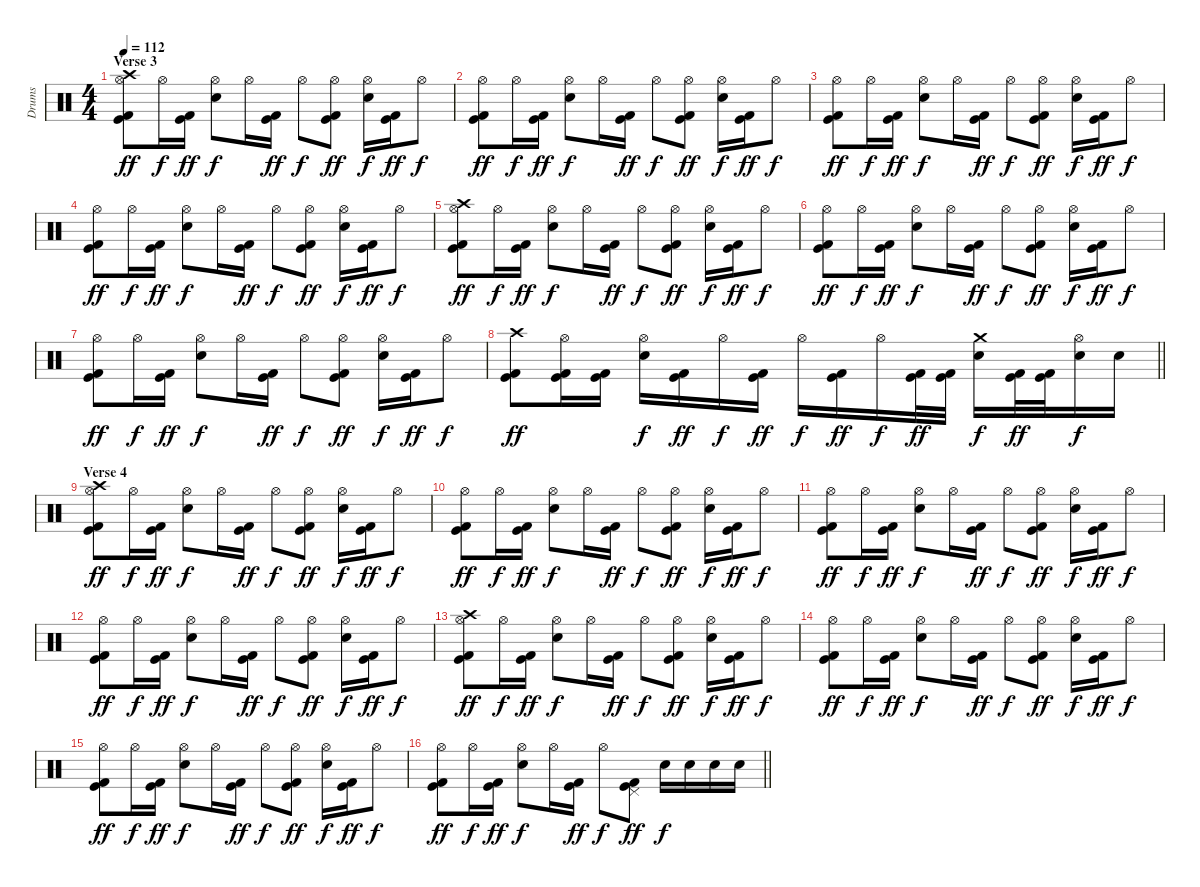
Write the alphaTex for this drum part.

\track ("Drums" "Drums") {instrument percussion}
\staff {score}
\articulation defaults
\ts (4 4)
\section ("" "Verse 3")
\tempo 112
\clef neutral
\ks c
("Crash high (hit)" "Hi-Hat (open)" "Kick (hit)" "Kick (hit) 2").8{dy ff} "Hi-Hat (open)".16{dy f} ("Kick (hit)" "Kick (hit) 2").16{dy ff} ("Hi-Hat (open)" "Snare (hit) 2").8{dy f} "Hi-Hat (open)".16 ("Kick (hit)" "Kick (hit) 2").16{dy ff} "Hi-Hat (open)".8{dy f} ("Hi-Hat (open)" "Kick (hit)" "Kick (hit) 2").8{dy ff} ("Hi-Hat (open)" "Snare (hit) 2").16{dy f} ("Kick (hit)" "Kick (hit) 2").16{dy ff} "Hi-Hat (open)".8{dy f} |
("Hi-Hat (open)" "Kick (hit)" "Kick (hit) 2").8{dy ff} "Hi-Hat (open)".16{dy f} ("Kick (hit)" "Kick (hit) 2").16{dy ff} ("Hi-Hat (open)" "Snare (hit) 2").8{dy f} "Hi-Hat (open)".16 ("Kick (hit)" "Kick (hit) 2").16{dy ff} "Hi-Hat (open)".8{dy f} ("Hi-Hat (open)" "Kick (hit)" "Kick (hit) 2").8{dy ff} ("Hi-Hat (open)" "Snare (hit) 2").16{dy f} ("Kick (hit)" "Kick (hit) 2").16{dy ff} "Hi-Hat (open)".8{dy f} |
("Hi-Hat (open)" "Kick (hit)" "Kick (hit) 2").8{dy ff} "Hi-Hat (open)".16{dy f} ("Kick (hit)" "Kick (hit) 2").16{dy ff} ("Hi-Hat (open)" "Snare (hit) 2").8{dy f} "Hi-Hat (open)".16 ("Kick (hit)" "Kick (hit) 2").16{dy ff} "Hi-Hat (open)".8{dy f} ("Hi-Hat (open)" "Kick (hit)" "Kick (hit) 2").8{dy ff} ("Hi-Hat (open)" "Snare (hit) 2").16{dy f} ("Kick (hit)" "Kick (hit) 2").16{dy ff} "Hi-Hat (open)".8{dy f} |
("Hi-Hat (open)" "Kick (hit)" "Kick (hit) 2").8{dy ff} "Hi-Hat (open)".16{dy f} ("Kick (hit)" "Kick (hit) 2").16{dy ff} ("Hi-Hat (open)" "Snare (hit) 2").8{dy f} "Hi-Hat (open)".16 ("Kick (hit)" "Kick (hit) 2").16{dy ff} "Hi-Hat (open)".8{dy f} ("Hi-Hat (open)" "Kick (hit)" "Kick (hit) 2").8{dy ff} ("Hi-Hat (open)" "Snare (hit) 2").16{dy f} ("Kick (hit)" "Kick (hit) 2").16{dy ff} "Hi-Hat (open)".8{dy f} |
("Crash high (hit)" "Hi-Hat (open)" "Kick (hit)" "Kick (hit) 2").8{dy ff} "Hi-Hat (open)".16{dy f} ("Kick (hit)" "Kick (hit) 2").16{dy ff} ("Hi-Hat (open)" "Snare (hit) 2").8{dy f} "Hi-Hat (open)".16 ("Kick (hit)" "Kick (hit) 2").16{dy ff} "Hi-Hat (open)".8{dy f} ("Hi-Hat (open)" "Kick (hit)" "Kick (hit) 2").8{dy ff} ("Hi-Hat (open)" "Snare (hit) 2").16{dy f} ("Kick (hit)" "Kick (hit) 2").16{dy ff} "Hi-Hat (open)".8{dy f} |
("Hi-Hat (open)" "Kick (hit)" "Kick (hit) 2").8{dy ff} "Hi-Hat (open)".16{dy f} ("Kick (hit)" "Kick (hit) 2").16{dy ff} ("Hi-Hat (open)" "Snare (hit) 2").8{dy f} "Hi-Hat (open)".16 ("Kick (hit)" "Kick (hit) 2").16{dy ff} "Hi-Hat (open)".8{dy f} ("Hi-Hat (open)" "Kick (hit)" "Kick (hit) 2").8{dy ff} ("Hi-Hat (open)" "Snare (hit) 2").16{dy f} ("Kick (hit)" "Kick (hit) 2").16{dy ff} "Hi-Hat (open)".8{dy f} |
("Hi-Hat (open)" "Kick (hit)" "Kick (hit) 2").8{dy ff} "Hi-Hat (open)".16{dy f} ("Kick (hit)" "Kick (hit) 2").16{dy ff} ("Hi-Hat (open)" "Snare (hit) 2").8{dy f} "Hi-Hat (open)".16 ("Kick (hit)" "Kick (hit) 2").16{dy ff} "Hi-Hat (open)".8{dy f} ("Hi-Hat (open)" "Kick (hit)" "Kick (hit) 2").8{dy ff} ("Hi-Hat (open)" "Snare (hit) 2").16{dy f} ("Kick (hit)" "Kick (hit) 2").16{dy ff} "Hi-Hat (open)".8{dy f} |
\barLineRight lightlight
("Crash high (hit)" "Kick (hit)" "Kick (hit) 2").8{dy ff} ("Hi-Hat (open)" "Kick (hit)" "Kick (hit) 2").16 ("Kick (hit)" "Kick (hit) 2").16 ("Hi-Hat (open)" "Snare (hit) 2").16{dy f} ("Kick (hit)" "Kick (hit) 2").16{dy ff} "Hi-Hat (open)".16{dy f} ("Kick (hit)" "Kick (hit) 2").16{dy ff} "Hi-Hat (open)".16{dy f} ("Kick (hit)" "Kick (hit) 2").16{dy ff} "Hi-Hat (open)".16{dy f} ("Kick (hit)" "Kick (hit) 2").32{dy ff} ("Kick (hit)" "Kick (hit) 2").32 ("Crash medium (hit)" "Snare (hit) 2").16{dy f} ("Kick (hit)" "Kick (hit) 2").32{dy ff} ("Kick (hit)" "Kick (hit) 2").32 ("Hi-Hat (open)" "Snare (hit) 2").16{dy f} "Snare (hit) 2".16 |
\section ("" "Verse 4")
("Crash high (hit)" "Hi-Hat (open)" "Kick (hit)" "Kick (hit) 2").8{dy ff} "Hi-Hat (open)".16{dy f} ("Kick (hit)" "Kick (hit) 2").16{dy ff} ("Hi-Hat (open)" "Snare (hit) 2").8{dy f} "Hi-Hat (open)".16 ("Kick (hit)" "Kick (hit) 2").16{dy ff} "Hi-Hat (open)".8{dy f} ("Hi-Hat (open)" "Kick (hit)" "Kick (hit) 2").8{dy ff} ("Hi-Hat (open)" "Snare (hit) 2").16{dy f} ("Kick (hit)" "Kick (hit) 2").16{dy ff} "Hi-Hat (open)".8{dy f} |
("Hi-Hat (open)" "Kick (hit)" "Kick (hit) 2").8{dy ff} "Hi-Hat (open)".16{dy f} ("Kick (hit)" "Kick (hit) 2").16{dy ff} ("Hi-Hat (open)" "Snare (hit) 2").8{dy f} "Hi-Hat (open)".16 ("Kick (hit)" "Kick (hit) 2").16{dy ff} "Hi-Hat (open)".8{dy f} ("Hi-Hat (open)" "Kick (hit)" "Kick (hit) 2").8{dy ff} ("Hi-Hat (open)" "Snare (hit) 2").16{dy f} ("Kick (hit)" "Kick (hit) 2").16{dy ff} "Hi-Hat (open)".8{dy f} |
("Hi-Hat (open)" "Kick (hit)" "Kick (hit) 2").8{dy ff} "Hi-Hat (open)".16{dy f} ("Kick (hit)" "Kick (hit) 2").16{dy ff} ("Hi-Hat (open)" "Snare (hit) 2").8{dy f} "Hi-Hat (open)".16 ("Kick (hit)" "Kick (hit) 2").16{dy ff} "Hi-Hat (open)".8{dy f} ("Hi-Hat (open)" "Kick (hit)" "Kick (hit) 2").8{dy ff} ("Hi-Hat (open)" "Snare (hit) 2").16{dy f} ("Kick (hit)" "Kick (hit) 2").16{dy ff} "Hi-Hat (open)".8{dy f} |
("Hi-Hat (open)" "Kick (hit)" "Kick (hit) 2").8{dy ff} "Hi-Hat (open)".16{dy f} ("Kick (hit)" "Kick (hit) 2").16{dy ff} ("Hi-Hat (open)" "Snare (hit) 2").8{dy f} "Hi-Hat (open)".16 ("Kick (hit)" "Kick (hit) 2").16{dy ff} "Hi-Hat (open)".8{dy f} ("Hi-Hat (open)" "Kick (hit)" "Kick (hit) 2").8{dy ff} ("Hi-Hat (open)" "Snare (hit) 2").16{dy f} ("Kick (hit)" "Kick (hit) 2").16{dy ff} "Hi-Hat (open)".8{dy f} |
("Crash high (hit)" "Hi-Hat (open)" "Kick (hit)" "Kick (hit) 2").8{dy ff} "Hi-Hat (open)".16{dy f} ("Kick (hit)" "Kick (hit) 2").16{dy ff} ("Hi-Hat (open)" "Snare (hit) 2").8{dy f} "Hi-Hat (open)".16 ("Kick (hit)" "Kick (hit) 2").16{dy ff} "Hi-Hat (open)".8{dy f} ("Hi-Hat (open)" "Kick (hit)" "Kick (hit) 2").8{dy ff} ("Hi-Hat (open)" "Snare (hit) 2").16{dy f} ("Kick (hit)" "Kick (hit) 2").16{dy ff} "Hi-Hat (open)".8{dy f} |
("Hi-Hat (open)" "Kick (hit)" "Kick (hit) 2").8{dy ff} "Hi-Hat (open)".16{dy f} ("Kick (hit)" "Kick (hit) 2").16{dy ff} ("Hi-Hat (open)" "Snare (hit) 2").8{dy f} "Hi-Hat (open)".16 ("Kick (hit)" "Kick (hit) 2").16{dy ff} "Hi-Hat (open)".8{dy f} ("Hi-Hat (open)" "Kick (hit)" "Kick (hit) 2").8{dy ff} ("Hi-Hat (open)" "Snare (hit) 2").16{dy f} ("Kick (hit)" "Kick (hit) 2").16{dy ff} "Hi-Hat (open)".8{dy f} |
("Hi-Hat (open)" "Kick (hit)" "Kick (hit) 2").8{dy ff} "Hi-Hat (open)".16{dy f} ("Kick (hit)" "Kick (hit) 2").16{dy ff} ("Hi-Hat (open)" "Snare (hit) 2").8{dy f} "Hi-Hat (open)".16 ("Kick (hit)" "Kick (hit) 2").16{dy ff} "Hi-Hat (open)".8{dy f} ("Hi-Hat (open)" "Kick (hit)" "Kick (hit) 2").8{dy ff} ("Hi-Hat (open)" "Snare (hit) 2").16{dy f} ("Kick (hit)" "Kick (hit) 2").16{dy ff} "Hi-Hat (open)".8{dy f} |
\barLineRight lightlight
("Hi-Hat (open)" "Kick (hit)" "Kick (hit) 2").8{dy ff} "Hi-Hat (open)".16{dy f} ("Kick (hit)" "Kick (hit) 2").16{dy ff} ("Hi-Hat (open)" "Snare (hit) 2").8{dy f} "Hi-Hat (open)".16 ("Kick (hit)" "Kick (hit) 2").16{dy ff} "Hi-Hat (open)".8{dy f} ("Pedal Hi-Hat (hit)" "Kick (hit)" "Kick (hit) 2").8{dy ff} "Snare (hit) 2".16{dy f} "Snare (hit) 2".16 "Snare (hit) 2".16 "Snare (hit) 2".16
